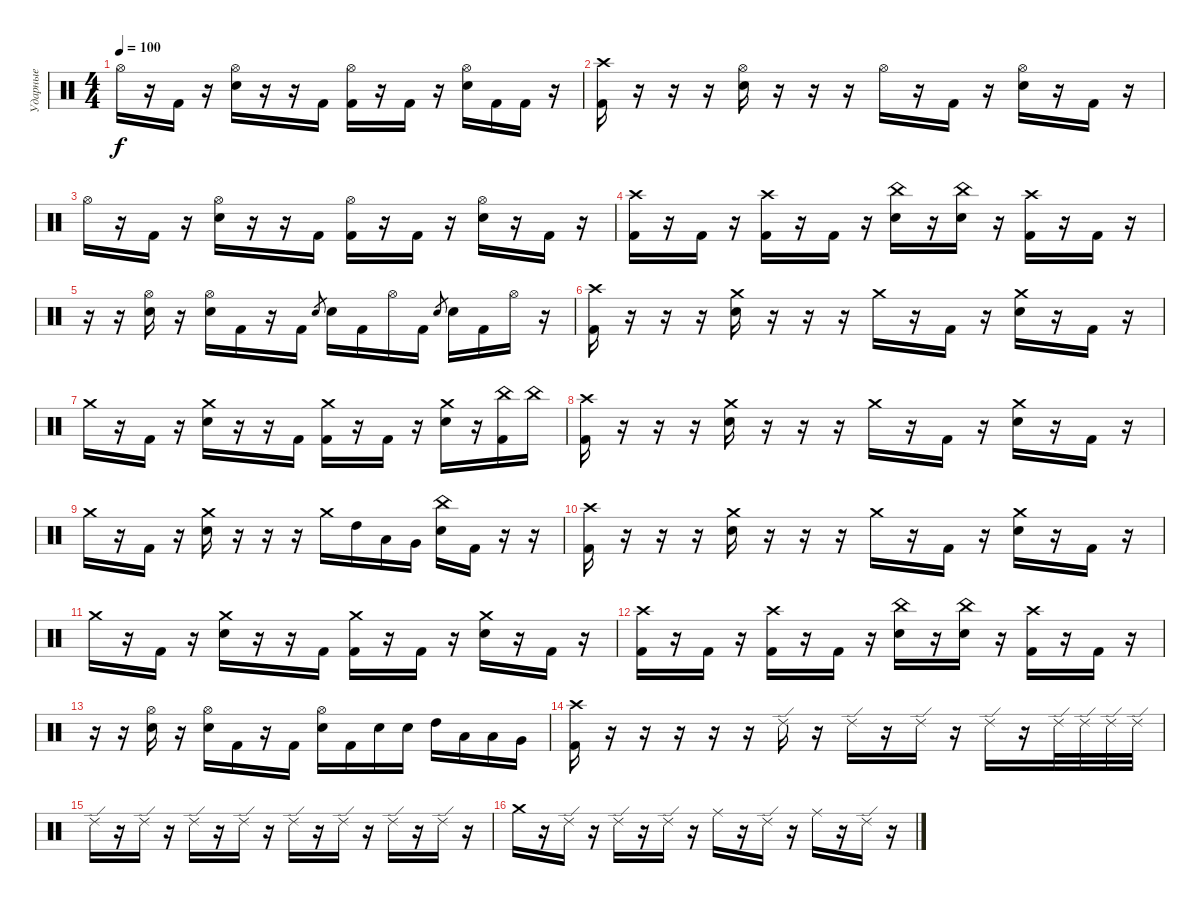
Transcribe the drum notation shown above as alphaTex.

\track ("Ударные" "Ударные") {instrument percussion}
\staff {score}
\articulation defaults
\ts (4 4)
\tempo 100
\clef neutral
\ks c "Hi-Hat (open)".16{dy f}
r.16 "Kick (hit) 2".16 r.16 ("Hi-Hat (open)" "Electric Snare (hit)").16 r.16 r.16 "Kick (hit) 2".16 ("Hi-Hat (open)" "Kick (hit) 2").16 r.16 "Kick (hit) 2".16 r.16 ("Hi-Hat (open)" "Electric Snare (hit)").16 "Kick (hit) 2".16 "Kick (hit) 2".16 r.16 |
("Crash high (hit)" "Kick (hit) 2").16 r.16 r.16 r.16 ("Hi-Hat (open)" "Electric Snare (hit)").16 r.16 r.16 r.16 "Hi-Hat (open)".16 r.16 "Kick (hit) 2".16 r.16 ("Hi-Hat (open)" "Electric Snare (hit)").16 r.16 "Kick (hit) 2".16 r.16 |
"Hi-Hat (open)".16 r.16 "Kick (hit) 2".16 r.16 ("Hi-Hat (open)" "Electric Snare (hit)").16 r.16 r.16 "Kick (hit) 2".16 ("Hi-Hat (open)" "Kick (hit) 2").16 r.16 "Kick (hit) 2".16 r.16 ("Hi-Hat (open)" "Electric Snare (hit)").16 r.16 "Kick (hit) 2".16 r.16 |
("Crash high (hit)" "Kick (hit) 2").16 r.16 "Kick (hit) 2".16 r.16 ("Crash high (hit)" "Kick (hit) 2").16 r.16 "Kick (hit) 2".16 r.16 ("China (hit)" "Electric Snare (hit)").16 r.16 ("China (hit)" "Electric Snare (hit)").16 r.16 ("Crash high (hit)" "Kick (hit) 2").16 r.16 "Kick (hit) 2".16 r.16 |
r.16 r.16 ("Hi-Hat (open)" "Electric Snare (hit)").16 r.16 ("Hi-Hat (open)" "Electric Snare (hit)").16 "Kick (hit) 2".16 r.16 "Kick (hit) 2".16 "Electric Snare (hit)".8{gr} "Electric Snare (hit)".16 "Kick (hit) 2".16 "Hi-Hat (open)".16 "Kick (hit) 2".16 "Electric Snare (hit)".8{gr} "Electric Snare (hit)".16 "Kick (hit) 2".16 "Hi-Hat (open)".16 r.16 |
("Crash high (hit)" "Kick (hit) 2").16 r.16 r.16 r.16 ("Crash medium (hit)" "Electric Snare (hit)").16 r.16 r.16 r.16 "Crash medium (hit)".16 r.16 "Kick (hit) 2".16 r.16 ("Crash medium (hit)" "Electric Snare (hit)").16 r.16 "Kick (hit) 2".16 r.16 |
"Crash medium (hit)".16 r.16 "Kick (hit) 2".16 r.16 ("Crash medium (hit)" "Electric Snare (hit)").16 r.16 r.16 "Kick (hit) 2".16 ("Crash medium (hit)" "Kick (hit) 2").16 r.16 "Kick (hit) 2".16 r.16 ("Crash medium (hit)" "Electric Snare (hit)").16 r.16 ("China (hit)" "Kick (hit) 2").16 "China (hit)".16 |
("Crash high (hit)" "Kick (hit) 2").16 r.16 r.16 r.16 ("Crash medium (hit)" "Electric Snare (hit)").16 r.16 r.16 r.16 "Crash medium (hit)".16 r.16 "Kick (hit) 2".16 r.16 ("Crash medium (hit)" "Electric Snare (hit)").16 r.16 "Kick (hit) 2".16 r.16 |
"Crash medium (hit)".16 r.16 "Kick (hit) 2".16 r.16 ("Crash medium (hit)" "Electric Snare (hit)").16 r.16 r.16 r.16 "Crash medium (hit)".16 "High Tom (hit)".16 "Low Tom (hit)".16 "Very Low Tom (hit)".16 ("China (hit)" "Electric Snare (hit)").16 "Kick (hit) 2".16 r.16 r.16 |
("Crash high (hit)" "Kick (hit) 2").16 r.16 r.16 r.16 ("Crash medium (hit)" "Electric Snare (hit)").16 r.16 r.16 r.16 "Crash medium (hit)".16 r.16 "Kick (hit) 2".16 r.16 ("Crash medium (hit)" "Electric Snare (hit)").16 r.16 "Kick (hit) 2".16 r.16 |
"Crash medium (hit)".16 r.16 "Kick (hit) 2".16 r.16 ("Crash medium (hit)" "Electric Snare (hit)").16 r.16 r.16 "Kick (hit) 2".16 ("Crash medium (hit)" "Kick (hit) 2").16 r.16 "Kick (hit) 2".16 r.16 ("Crash medium (hit)" "Electric Snare (hit)").16 r.16 "Kick (hit) 2".16 r.16 |
("Crash high (hit)" "Kick (hit) 2").16 r.16 "Kick (hit) 2".16 r.16 ("Crash high (hit)" "Kick (hit) 2").16 r.16 "Kick (hit) 2".16 r.16 ("China (hit)" "Electric Snare (hit)").16 r.16 ("China (hit)" "Electric Snare (hit)").16 r.16 ("Crash high (hit)" "Kick (hit) 2").16 r.16 "Kick (hit) 2".16 r.16 |
r.16 r.16 ("Hi-Hat (open)" "Electric Snare (hit)").16 r.16 ("Hi-Hat (open)" "Electric Snare (hit)").16 "Kick (hit) 2".16 r.16 "Kick (hit) 2".16 ("Hi-Hat (open)" "Electric Snare (hit)").16 "Kick (hit) 2".16 "Electric Snare (hit)".16 "Electric Snare (hit)".16 "High Tom (hit)".16 "Low Tom (hit)".16 "Low Tom (hit)".16 "Very Low Tom (hit)".16 |
("Crash high (hit)" "Kick (hit) 2").16 r.16 r.16 r.16 r.16 r.16 "Ride (edge) 2".16 r.16 "Ride (edge) 2".16 r.16 "Ride (edge) 2".16 r.16 "Ride (edge) 2".16 r.16 "Ride (edge) 2".32 "Ride (edge) 2".32 "Ride (edge) 2".32 "Ride (edge) 2".32 |
"Ride (edge) 2".16 r.16 "Ride (edge) 2".16 r.16 "Ride (edge) 2".16 r.16 "Ride (edge) 2".16 r.16 "Ride (edge) 2".16 r.16 "Ride (edge) 2".16 r.16 "Ride (edge) 2".16 r.16 "Ride (edge) 2".16 r.16 |
"Crash medium (hit)".16 r.16 "Ride (edge) 2".16 r.16 "Ride (edge) 2".16 r.16 "Ride (edge) 2".16 r.16 "Ride (middle)".16 r.16 "Ride (edge) 2".16 r.16 "Ride (middle)".16 r.16 "Ride (edge) 2".16 r.16
